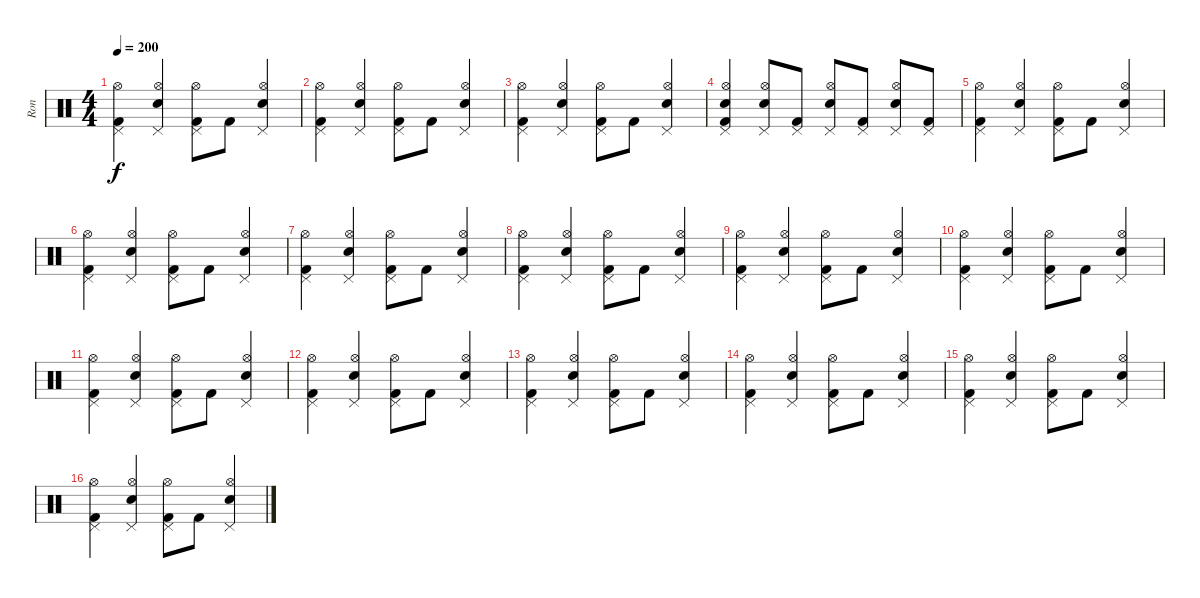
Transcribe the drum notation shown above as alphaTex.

\track ("Ron" "Ron") {instrument percussion}
\staff {score}
\articulation defaults
\ts (4 4)
\tempo 200
\clef neutral
\ks c
("Pedal Hi-Hat (hit)" "Kick (hit) 2" "Hi-Hat (open)").4{dy f} ("Electric Snare (hit)" "Pedal Hi-Hat (hit)" "Hi-Hat (open)").4 ("Pedal Hi-Hat (hit)" "Kick (hit) 2" "Hi-Hat (open)").8 "Kick (hit) 2".8 ("Electric Snare (hit)" "Pedal Hi-Hat (hit)" "Hi-Hat (open)").4 |
("Pedal Hi-Hat (hit)" "Kick (hit) 2" "Hi-Hat (open)").4 ("Electric Snare (hit)" "Pedal Hi-Hat (hit)" "Hi-Hat (open)").4 ("Pedal Hi-Hat (hit)" "Kick (hit) 2" "Hi-Hat (open)").8 "Kick (hit) 2".8 ("Electric Snare (hit)" "Pedal Hi-Hat (hit)" "Hi-Hat (open)").4 |
("Pedal Hi-Hat (hit)" "Kick (hit) 2" "Hi-Hat (open)").4 ("Electric Snare (hit)" "Pedal Hi-Hat (hit)" "Hi-Hat (open)").4 ("Pedal Hi-Hat (hit)" "Kick (hit) 2" "Hi-Hat (open)").8 "Kick (hit) 2".8 ("Electric Snare (hit)" "Pedal Hi-Hat (hit)" "Hi-Hat (open)").4 |
("Electric Snare (hit)" "Kick (hit) 2" "Pedal Hi-Hat (hit)" "Hi-Hat (open)").4 ("Electric Snare (hit)" "Pedal Hi-Hat (hit)" "Hi-Hat (open)").8 ("Kick (hit) 2" "Pedal Hi-Hat (hit)").8 ("Electric Snare (hit)" "Pedal Hi-Hat (hit)" "Hi-Hat (open)").8 ("Kick (hit) 2" "Pedal Hi-Hat (hit)").8 ("Electric Snare (hit)" "Pedal Hi-Hat (hit)" "Hi-Hat (open)").8 ("Kick (hit) 2" "Pedal Hi-Hat (hit)").8 |
("Pedal Hi-Hat (hit)" "Kick (hit) 2" "Hi-Hat (open)").4 ("Electric Snare (hit)" "Pedal Hi-Hat (hit)" "Hi-Hat (open)").4 ("Pedal Hi-Hat (hit)" "Kick (hit) 2" "Hi-Hat (open)").8 "Kick (hit) 2".8 ("Electric Snare (hit)" "Pedal Hi-Hat (hit)" "Hi-Hat (open)").4 |
("Pedal Hi-Hat (hit)" "Kick (hit) 2" "Hi-Hat (open)").4 ("Electric Snare (hit)" "Pedal Hi-Hat (hit)" "Hi-Hat (open)").4 ("Pedal Hi-Hat (hit)" "Kick (hit) 2" "Hi-Hat (open)").8 "Kick (hit) 2".8 ("Electric Snare (hit)" "Pedal Hi-Hat (hit)" "Hi-Hat (open)").4 |
("Pedal Hi-Hat (hit)" "Kick (hit) 2" "Hi-Hat (open)").4 ("Electric Snare (hit)" "Pedal Hi-Hat (hit)" "Hi-Hat (open)").4 ("Pedal Hi-Hat (hit)" "Kick (hit) 2" "Hi-Hat (open)").8 "Kick (hit) 2".8 ("Electric Snare (hit)" "Pedal Hi-Hat (hit)" "Hi-Hat (open)").4 |
("Pedal Hi-Hat (hit)" "Kick (hit) 2" "Hi-Hat (open)").4 ("Electric Snare (hit)" "Pedal Hi-Hat (hit)" "Hi-Hat (open)").4 ("Pedal Hi-Hat (hit)" "Kick (hit) 2" "Hi-Hat (open)").8 "Kick (hit) 2".8 ("Electric Snare (hit)" "Pedal Hi-Hat (hit)" "Hi-Hat (open)").4 |
("Pedal Hi-Hat (hit)" "Kick (hit) 2" "Hi-Hat (open)").4 ("Electric Snare (hit)" "Pedal Hi-Hat (hit)" "Hi-Hat (open)").4 ("Pedal Hi-Hat (hit)" "Kick (hit) 2" "Hi-Hat (open)").8 "Kick (hit) 2".8 ("Electric Snare (hit)" "Pedal Hi-Hat (hit)" "Hi-Hat (open)").4 |
("Pedal Hi-Hat (hit)" "Kick (hit) 2" "Hi-Hat (open)").4 ("Electric Snare (hit)" "Pedal Hi-Hat (hit)" "Hi-Hat (open)").4 ("Pedal Hi-Hat (hit)" "Kick (hit) 2" "Hi-Hat (open)").8 "Kick (hit) 2".8 ("Electric Snare (hit)" "Pedal Hi-Hat (hit)" "Hi-Hat (open)").4 |
("Pedal Hi-Hat (hit)" "Kick (hit) 2" "Hi-Hat (open)").4 ("Electric Snare (hit)" "Pedal Hi-Hat (hit)" "Hi-Hat (open)").4 ("Pedal Hi-Hat (hit)" "Kick (hit) 2" "Hi-Hat (open)").8 "Kick (hit) 2".8 ("Electric Snare (hit)" "Pedal Hi-Hat (hit)" "Hi-Hat (open)").4 |
("Pedal Hi-Hat (hit)" "Kick (hit) 2" "Hi-Hat (open)").4 ("Electric Snare (hit)" "Pedal Hi-Hat (hit)" "Hi-Hat (open)").4 ("Pedal Hi-Hat (hit)" "Kick (hit) 2" "Hi-Hat (open)").8 "Kick (hit) 2".8 ("Electric Snare (hit)" "Pedal Hi-Hat (hit)" "Hi-Hat (open)").4 |
("Pedal Hi-Hat (hit)" "Kick (hit) 2" "Hi-Hat (open)").4 ("Electric Snare (hit)" "Pedal Hi-Hat (hit)" "Hi-Hat (open)").4 ("Pedal Hi-Hat (hit)" "Kick (hit) 2" "Hi-Hat (open)").8 "Kick (hit) 2".8 ("Electric Snare (hit)" "Pedal Hi-Hat (hit)" "Hi-Hat (open)").4 |
("Pedal Hi-Hat (hit)" "Kick (hit) 2" "Hi-Hat (open)").4 ("Electric Snare (hit)" "Pedal Hi-Hat (hit)" "Hi-Hat (open)").4 ("Pedal Hi-Hat (hit)" "Kick (hit) 2" "Hi-Hat (open)").8 "Kick (hit) 2".8 ("Electric Snare (hit)" "Pedal Hi-Hat (hit)" "Hi-Hat (open)").4 |
("Pedal Hi-Hat (hit)" "Kick (hit) 2" "Hi-Hat (open)").4 ("Electric Snare (hit)" "Pedal Hi-Hat (hit)" "Hi-Hat (open)").4 ("Pedal Hi-Hat (hit)" "Kick (hit) 2" "Hi-Hat (open)").8 "Kick (hit) 2".8 ("Electric Snare (hit)" "Pedal Hi-Hat (hit)" "Hi-Hat (open)").4 |
("Pedal Hi-Hat (hit)" "Kick (hit) 2" "Hi-Hat (open)").4 ("Electric Snare (hit)" "Pedal Hi-Hat (hit)" "Hi-Hat (open)").4 ("Pedal Hi-Hat (hit)" "Kick (hit) 2" "Hi-Hat (open)").8 "Kick (hit) 2".8 ("Electric Snare (hit)" "Pedal Hi-Hat (hit)" "Hi-Hat (open)").4
